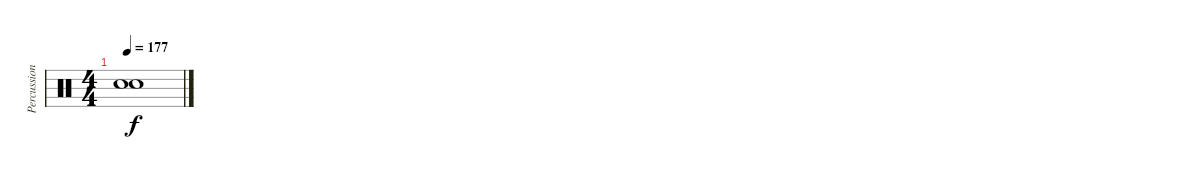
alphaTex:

\track ("Percussion" "Percussion") {instrument percussion}
\staff {score}
\articulation defaults
\ts (4 4)
\tempo 177
\clef neutral
\ks c
("Snare (hit)"{t} "Snare (hit)"{t}).1{dy f}
